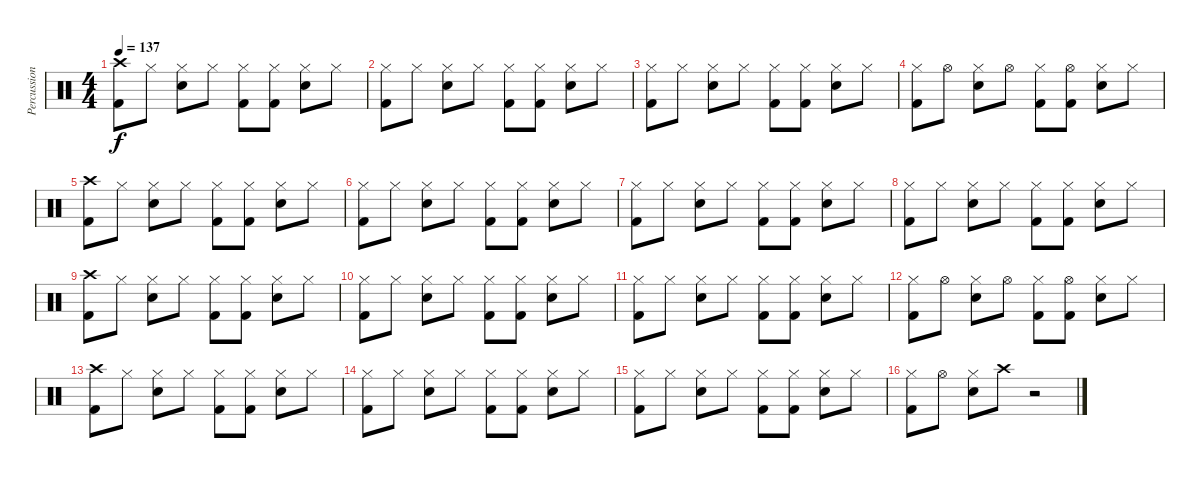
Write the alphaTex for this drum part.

\track ("Percussions" "Percussion") {instrument percussion}
\staff {score}
\articulation defaults
\ts (4 4)
\tempo 137
\clef neutral
\ks c
("Crash high (hit)" "Kick (hit) 2").8{dy f} "Hi-Hat (closed)".8 ("Hi-Hat (closed)" "Snare (hit) 2").8 "Hi-Hat (closed)".8 ("Hi-Hat (closed)" "Kick (hit) 2").8 ("Hi-Hat (closed)" "Kick (hit) 2").8 ("Hi-Hat (closed)" "Snare (hit) 2").8 "Hi-Hat (closed)".8 |
("Hi-Hat (closed)" "Kick (hit) 2").8 "Hi-Hat (closed)".8 ("Hi-Hat (closed)" "Snare (hit) 2").8 "Hi-Hat (closed)".8 ("Hi-Hat (closed)" "Kick (hit) 2").8 ("Hi-Hat (closed)" "Kick (hit) 2").8 ("Hi-Hat (closed)" "Snare (hit) 2").8 "Hi-Hat (closed)".8 |
("Hi-Hat (closed)" "Kick (hit) 2").8 "Hi-Hat (closed)".8 ("Hi-Hat (closed)" "Snare (hit) 2").8 "Hi-Hat (closed)".8 ("Hi-Hat (closed)" "Kick (hit) 2").8 ("Hi-Hat (closed)" "Kick (hit) 2").8 ("Hi-Hat (closed)" "Snare (hit) 2").8 "Hi-Hat (closed)".8 |
("Hi-Hat (closed)" "Kick (hit) 2").8 "Hi-Hat (open)".8 ("Hi-Hat (closed)" "Snare (hit) 2").8 "Hi-Hat (open)".8 ("Hi-Hat (closed)" "Kick (hit) 2").8 ("Hi-Hat (open)" "Kick (hit) 2").8 ("Hi-Hat (closed)" "Snare (hit) 2").8 "Hi-Hat (closed)".8 |
("Crash high (hit)" "Kick (hit) 2").8 "Hi-Hat (closed)".8 ("Hi-Hat (closed)" "Snare (hit) 2").8 "Hi-Hat (closed)".8 ("Hi-Hat (closed)" "Kick (hit) 2").8 ("Hi-Hat (closed)" "Kick (hit) 2").8 ("Hi-Hat (closed)" "Snare (hit) 2").8 "Hi-Hat (closed)".8 |
("Hi-Hat (closed)" "Kick (hit) 2").8 "Hi-Hat (closed)".8 ("Hi-Hat (closed)" "Snare (hit) 2").8 "Hi-Hat (closed)".8 ("Hi-Hat (closed)" "Kick (hit) 2").8 ("Hi-Hat (closed)" "Kick (hit) 2").8 ("Hi-Hat (closed)" "Snare (hit) 2").8 "Hi-Hat (closed)".8 |
("Hi-Hat (closed)" "Kick (hit) 2").8 "Hi-Hat (closed)".8 ("Hi-Hat (closed)" "Snare (hit) 2").8 "Hi-Hat (closed)".8 ("Hi-Hat (closed)" "Kick (hit) 2").8 ("Hi-Hat (closed)" "Kick (hit) 2").8 ("Hi-Hat (closed)" "Snare (hit) 2").8 "Hi-Hat (closed)".8 |
("Hi-Hat (closed)" "Kick (hit) 2").8 "Hi-Hat (closed)".8 ("Hi-Hat (closed)" "Snare (hit) 2").8 "Hi-Hat (closed)".8 ("Hi-Hat (closed)" "Kick (hit) 2").8 ("Hi-Hat (closed)" "Kick (hit) 2").8 ("Hi-Hat (closed)" "Snare (hit) 2").8 "Hi-Hat (closed)".8 |
("Crash high (hit)" "Kick (hit) 2").8 "Hi-Hat (closed)".8 ("Hi-Hat (closed)" "Snare (hit) 2").8 "Hi-Hat (closed)".8 ("Hi-Hat (closed)" "Kick (hit) 2").8 ("Hi-Hat (closed)" "Kick (hit) 2").8 ("Hi-Hat (closed)" "Snare (hit) 2").8 "Hi-Hat (closed)".8 |
("Hi-Hat (closed)" "Kick (hit) 2").8 "Hi-Hat (closed)".8 ("Hi-Hat (closed)" "Snare (hit) 2").8 "Hi-Hat (closed)".8 ("Hi-Hat (closed)" "Kick (hit) 2").8 ("Hi-Hat (closed)" "Kick (hit) 2").8 ("Hi-Hat (closed)" "Snare (hit) 2").8 "Hi-Hat (closed)".8 |
("Hi-Hat (closed)" "Kick (hit) 2").8 "Hi-Hat (closed)".8 ("Hi-Hat (closed)" "Snare (hit) 2").8 "Hi-Hat (closed)".8 ("Hi-Hat (closed)" "Kick (hit) 2").8 ("Hi-Hat (closed)" "Kick (hit) 2").8 ("Hi-Hat (closed)" "Snare (hit) 2").8 "Hi-Hat (closed)".8 |
("Hi-Hat (closed)" "Kick (hit) 2").8 "Hi-Hat (open)".8 ("Hi-Hat (closed)" "Snare (hit) 2").8 "Hi-Hat (open)".8 ("Hi-Hat (closed)" "Kick (hit) 2").8 ("Hi-Hat (open)" "Kick (hit) 2").8 ("Hi-Hat (closed)" "Snare (hit) 2").8 "Hi-Hat (closed)".8 |
("Crash high (hit)" "Kick (hit) 2").8 "Hi-Hat (closed)".8 ("Hi-Hat (closed)" "Snare (hit) 2").8 "Hi-Hat (closed)".8 ("Hi-Hat (closed)" "Kick (hit) 2").8 ("Hi-Hat (closed)" "Kick (hit) 2").8 ("Hi-Hat (closed)" "Snare (hit) 2").8 "Hi-Hat (closed)".8 |
("Hi-Hat (closed)" "Kick (hit) 2").8 "Hi-Hat (closed)".8 ("Hi-Hat (closed)" "Snare (hit) 2").8 "Hi-Hat (closed)".8 ("Hi-Hat (closed)" "Kick (hit) 2").8 ("Hi-Hat (closed)" "Kick (hit) 2").8 ("Hi-Hat (closed)" "Snare (hit) 2").8 "Hi-Hat (closed)".8 |
("Hi-Hat (closed)" "Kick (hit) 2").8 "Hi-Hat (closed)".8 ("Hi-Hat (closed)" "Snare (hit) 2").8 "Hi-Hat (closed)".8 ("Hi-Hat (closed)" "Kick (hit) 2").8 ("Hi-Hat (closed)" "Kick (hit) 2").8 ("Hi-Hat (closed)" "Snare (hit) 2").8 "Hi-Hat (closed)".8 |
("Hi-Hat (closed)" "Kick (hit) 2").8 "Hi-Hat (open)".8 ("Hi-Hat (closed)" "Snare (hit) 2").8 "Crash high (hit)".8 r.2
